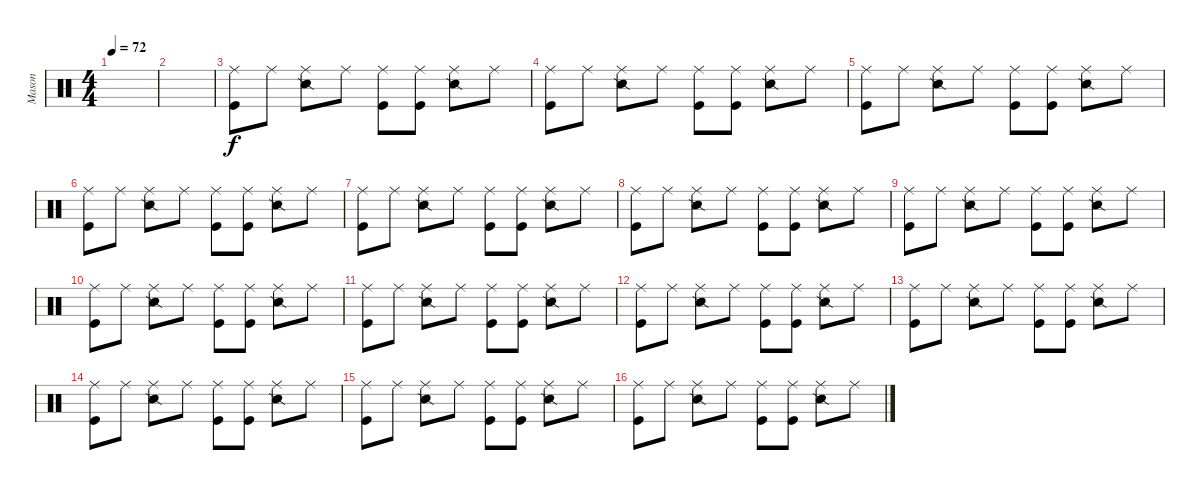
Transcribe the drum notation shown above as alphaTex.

\track ("Mason" "Mason") {instrument percussion}
\staff {score}
\articulation defaults
\ts (4 4)
\tempo 72
\clef neutral
\ks c
|
|
("Ride (middle)" "Kick (hit)").8 "Ride (middle)".8 ("Ride (middle)" "Snare (side stick) 2").8 "Ride (middle)".8 ("Ride (middle)" "Kick (hit)").8 ("Ride (middle)" "Kick (hit)").8 ("Ride (middle)" "Snare (side stick) 2").8 "Ride (middle)".8 |
("Ride (middle)" "Kick (hit)").8 "Ride (middle)".8 ("Ride (middle)" "Snare (side stick) 2").8 "Ride (middle)".8 ("Ride (middle)" "Kick (hit)").8 ("Ride (middle)" "Kick (hit)").8 ("Ride (middle)" "Snare (side stick) 2").8 "Ride (middle)".8 |
("Ride (middle)" "Kick (hit)").8 "Ride (middle)".8 ("Ride (middle)" "Snare (side stick) 2").8 "Ride (middle)".8 ("Ride (middle)" "Kick (hit)").8 ("Ride (middle)" "Kick (hit)").8 ("Ride (middle)" "Snare (side stick) 2").8 "Ride (middle)".8 |
("Ride (middle)" "Kick (hit)").8 "Ride (middle)".8 ("Ride (middle)" "Snare (side stick) 2").8 "Ride (middle)".8 ("Ride (middle)" "Kick (hit)").8 ("Ride (middle)" "Kick (hit)").8 ("Ride (middle)" "Snare (side stick) 2").8 "Ride (middle)".8 |
("Ride (middle)" "Kick (hit)").8 "Ride (middle)".8 ("Ride (middle)" "Snare (side stick) 2").8 "Ride (middle)".8 ("Ride (middle)" "Kick (hit)").8 ("Ride (middle)" "Kick (hit)").8 ("Ride (middle)" "Snare (side stick) 2").8 "Ride (middle)".8 |
("Ride (middle)" "Kick (hit)").8 "Ride (middle)".8 ("Ride (middle)" "Snare (side stick) 2").8 "Ride (middle)".8 ("Ride (middle)" "Kick (hit)").8 ("Ride (middle)" "Kick (hit)").8 ("Ride (middle)" "Snare (side stick) 2").8 "Ride (middle)".8 |
("Ride (middle)" "Kick (hit)").8 "Ride (middle)".8 ("Ride (middle)" "Snare (side stick) 2").8 "Ride (middle)".8 ("Ride (middle)" "Kick (hit)").8 ("Ride (middle)" "Kick (hit)").8 ("Ride (middle)" "Snare (side stick) 2").8 "Ride (middle)".8 |
("Ride (middle)" "Kick (hit)").8 "Ride (middle)".8 ("Ride (middle)" "Snare (side stick) 2").8 "Ride (middle)".8 ("Ride (middle)" "Kick (hit)").8 ("Ride (middle)" "Kick (hit)").8 ("Ride (middle)" "Snare (side stick) 2").8 "Ride (middle)".8 |
("Ride (middle)" "Kick (hit)").8 "Ride (middle)".8 ("Ride (middle)" "Snare (side stick) 2").8 "Ride (middle)".8 ("Ride (middle)" "Kick (hit)").8 ("Ride (middle)" "Kick (hit)").8 ("Ride (middle)" "Snare (side stick) 2").8 "Ride (middle)".8 |
("Ride (middle)" "Kick (hit)").8 "Ride (middle)".8 ("Ride (middle)" "Snare (side stick) 2").8 "Ride (middle)".8 ("Ride (middle)" "Kick (hit)").8 ("Ride (middle)" "Kick (hit)").8 ("Ride (middle)" "Snare (side stick) 2").8 "Ride (middle)".8 |
("Ride (middle)" "Kick (hit)").8 "Ride (middle)".8 ("Ride (middle)" "Snare (side stick) 2").8 "Ride (middle)".8 ("Ride (middle)" "Kick (hit)").8 ("Ride (middle)" "Kick (hit)").8 ("Ride (middle)" "Snare (side stick) 2").8 "Ride (middle)".8 |
("Ride (middle)" "Kick (hit)").8 "Ride (middle)".8 ("Ride (middle)" "Snare (side stick) 2").8 "Ride (middle)".8 ("Ride (middle)" "Kick (hit)").8 ("Ride (middle)" "Kick (hit)").8 ("Ride (middle)" "Snare (side stick) 2").8 "Ride (middle)".8 |
("Ride (middle)" "Kick (hit)").8 "Ride (middle)".8 ("Ride (middle)" "Snare (side stick) 2").8 "Ride (middle)".8 ("Ride (middle)" "Kick (hit)").8 ("Ride (middle)" "Kick (hit)").8 ("Ride (middle)" "Snare (side stick) 2").8 "Ride (middle)".8 |
("Ride (middle)" "Kick (hit)").8 "Ride (middle)".8 ("Ride (middle)" "Snare (side stick) 2").8 "Ride (middle)".8 ("Ride (middle)" "Kick (hit)").8 ("Ride (middle)" "Kick (hit)").8 ("Ride (middle)" "Snare (side stick) 2").8 "Ride (middle)".8
